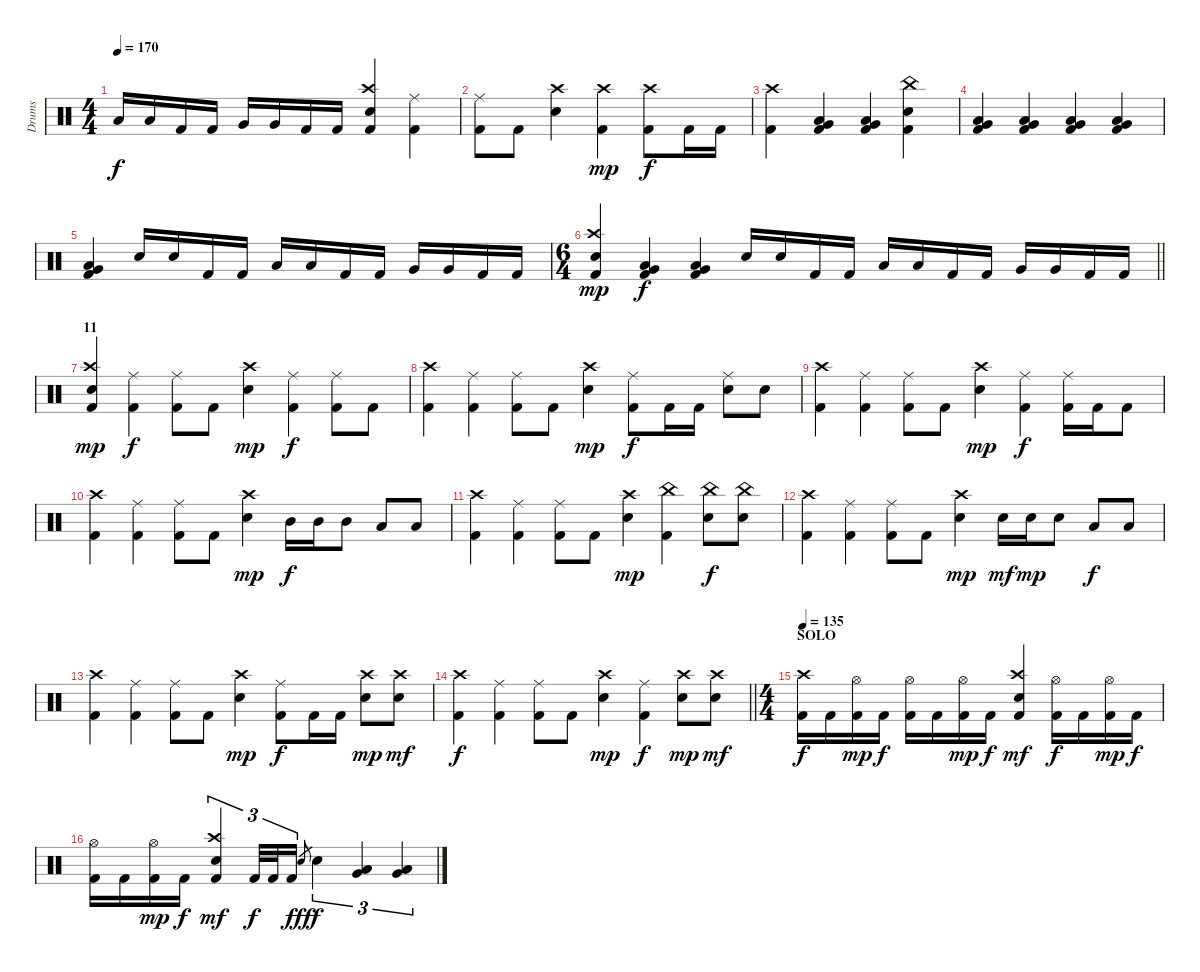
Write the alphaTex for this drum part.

\track ("Drums" "Drums") {instrument percussion}
\staff {score}
\articulation defaults
\ts (4 4)
\tempo 170
\clef neutral
\ks c "Low Tom (hit)".16{dy f} "Low Tom (hit)".16 "Kick (hit) 2".16 "Kick (hit) 2".16 "Very Low Tom (hit)".16 "Very Low Tom (hit)".16 "Kick (hit) 2".16 "Kick (hit) 2".16
("Crash high (hit)" "Electric Snare (hit)" "Kick (hit) 2").4 ("Ride (middle)" "Kick (hit) 2").4 |
("Ride (middle)" "Kick (hit) 2").8 "Kick (hit) 2".8 ("Crash high (hit)" "Electric Snare (hit)").4 ("Crash high (hit)" "Kick (hit) 2").4{dy mp} ("Crash high (hit)" "Kick (hit) 2").8{dy f} "Kick (hit) 2".16 "Kick (hit) 2".16 |
("Crash high (hit)" "Kick (hit) 2").4 ("Low Tom (hit)" "Very Low Tom (hit)" "Kick (hit) 2").4 ("Low Tom (hit)" "Very Low Tom (hit)" "Kick (hit) 2").4 ("China (hit)" "Electric Snare (hit)" "Kick (hit) 2").4 |
("Low Tom (hit)" "Very Low Tom (hit)" "Kick (hit) 2").4 ("Low Tom (hit)" "Very Low Tom (hit)" "Kick (hit) 2").4 ("Low Tom (hit)" "Very Low Tom (hit)" "Kick (hit) 2").4 ("Low Tom (hit)" "Very Low Tom (hit)" "Kick (hit) 2").4 |
("Low Tom (hit)" "Very Low Tom (hit)" "Kick (hit) 2").4 "Electric Snare (hit)".16 "Electric Snare (hit)".16 "Kick (hit) 2".16 "Kick (hit) 2".16 "Low Tom (hit)".16 "Low Tom (hit)".16 "Kick (hit) 2".16 "Kick (hit) 2".16 "Very Low Tom (hit)".16 "Very Low Tom (hit)".16 "Kick (hit) 2".16 "Kick (hit) 2".16 |
\ts (6 4)
\barLineRight lightlight
("Crash high (hit)" "Electric Snare (hit)" "Kick (hit) 2").4{dy mp} ("Low Tom (hit)" "Very Low Tom (hit)" "Kick (hit) 2").4{dy f} ("Low Tom (hit)" "Very Low Tom (hit)" "Kick (hit) 2").4 "Electric Snare (hit)".16 "Electric Snare (hit)".16 "Kick (hit) 2".16 "Kick (hit) 2".16 "Low Tom (hit)".16 "Low Tom (hit)".16 "Kick (hit) 2".16 "Kick (hit) 2".16 "Very Low Tom (hit)".16 "Very Low Tom (hit)".16 "Kick (hit) 2".16 "Kick (hit) 2".16 |
\section ("" "11")
("Crash high (hit)" "Electric Snare (hit)" "Kick (hit) 2").4{dy mp} ("Ride (middle)" "Kick (hit) 2").4{dy f} ("Ride (middle)" "Kick (hit) 2").8 "Kick (hit) 2".8 ("Crash high (hit)" "Electric Snare (hit)").4{dy mp} ("Ride (middle)" "Kick (hit) 2").4{dy f} ("Ride (middle)" "Kick (hit) 2").8 "Kick (hit) 2".8 |
("Crash high (hit)" "Kick (hit) 2").4 ("Ride (middle)" "Kick (hit) 2").4 ("Ride (middle)" "Kick (hit) 2").8 "Kick (hit) 2".8 ("Crash high (hit)" "Electric Snare (hit)").4{dy mp} ("Ride (middle)" "Kick (hit) 2").8{dy f} "Kick (hit) 2".16 "Kick (hit) 2".16 ("Ride (middle)" "Electric Snare (hit)").8 "Electric Snare (hit)".8 |
("Crash high (hit)" "Kick (hit) 2").4 ("Ride (middle)" "Kick (hit) 2").4 ("Ride (middle)" "Kick (hit) 2").8 "Kick (hit) 2".8 ("Crash high (hit)" "Electric Snare (hit)").4{dy mp} ("Ride (middle)" "Kick (hit) 2").4{dy f} ("Ride (middle)" "Kick (hit) 2").16 "Kick (hit) 2".16 "Kick (hit) 2".8 |
("Crash high (hit)" "Kick (hit) 2").4 ("Ride (middle)" "Kick (hit) 2").4 ("Ride (middle)" "Kick (hit) 2").8 "Kick (hit) 2".8 ("Crash high (hit)" "Electric Snare (hit)").4{dy mp} "Mid Tom (hit)".16{dy f} "Mid Tom (hit)".16 "Mid Tom (hit)".8 "Low Tom (hit)".8 "Low Tom (hit)".8 |
("Crash high (hit)" "Kick (hit) 2").4 ("Ride (middle)" "Kick (hit) 2").4 ("Ride (middle)" "Kick (hit) 2").8 "Kick (hit) 2".8 ("Crash high (hit)" "Electric Snare (hit)").4{dy mp} ("China (hit)" "Kick (hit) 2").4 ("China (hit)" "Electric Snare (hit)").8{dy f} ("China (hit)" "Electric Snare (hit)").8 |
("Crash high (hit)" "Kick (hit) 2").4 ("Ride (middle)" "Kick (hit) 2").4 ("Ride (middle)" "Kick (hit) 2").8 "Kick (hit) 2".8 ("Crash high (hit)" "Electric Snare (hit)").4{dy mp} "Electric Snare (hit)".16{dy mf} "Electric Snare (hit)".16{dy mp} "Electric Snare (hit)".8 "Low Tom (hit)".8{dy f} "Low Tom (hit)".8 |
("Crash high (hit)" "Kick (hit) 2").4 ("Ride (middle)" "Kick (hit) 2").4 ("Ride (middle)" "Kick (hit) 2").8 "Kick (hit) 2".8 ("Crash high (hit)" "Electric Snare (hit)").4{dy mp} ("Ride (middle)" "Kick (hit) 2").8{dy f} "Kick (hit) 2".16 "Kick (hit) 2".16 ("Crash high (hit)" "Electric Snare (hit)").8{dy mp} ("Crash high (hit)" "Electric Snare (hit)").8{dy mf} |
\barLineRight lightlight
("Crash high (hit)" "Kick (hit) 2").4{dy f} ("Ride (middle)" "Kick (hit) 2").4 ("Ride (middle)" "Kick (hit) 2").8 "Kick (hit) 2".8 ("Crash high (hit)" "Electric Snare (hit)").4{dy mp} ("Ride (middle)" "Kick (hit) 2").4{dy f} ("Crash high (hit)" "Electric Snare (hit)").8{dy mp} ("Crash high (hit)" "Electric Snare (hit)").8{dy mf} |
\ts (4 4)
\section ("" "SOLO")
\tempo 135
("Crash high (hit)" "Kick (hit) 2").16{dy f} "Kick (hit) 2".16 ("Hi-Hat (open)" "Kick (hit) 2").16{dy mp} "Kick (hit) 2".16{dy f} ("Hi-Hat (open)" "Kick (hit) 2").16 "Kick (hit) 2".16 ("Hi-Hat (open)" "Kick (hit) 2").16{dy mp} "Kick (hit) 2".16{dy f} ("Crash high (hit)" "Electric Snare (hit)" "Kick (hit) 2").4{dy mf} ("Hi-Hat (open)" "Kick (hit) 2").16{dy f} "Kick (hit) 2".16 ("Hi-Hat (open)" "Kick (hit) 2").16{dy mp} "Kick (hit) 2".16{dy f} |
("Hi-Hat (open)" "Kick (hit) 2").16 "Kick (hit) 2".16 ("Hi-Hat (open)" "Kick (hit) 2").16{dy mp} "Kick (hit) 2".16{dy f} ("Crash high (hit)" "Electric Snare (hit)" "Kick (hit) 2").4{tu (3 2) dy mf} "Kick (hit) 2".32{tu (3 2) dy f} "Kick (hit) 2".32{tu (3 2)} "Kick (hit) 2".16{tu (3 2)} "Electric Snare (hit)".8{gr dy fff} "Electric Snare (hit)".4{tu (3 2) dy f} ("Low Tom (hit)" "Very Low Tom (hit)").4{tu (3 2)} ("Very Low Tom (hit)" "Low Floor Tom (hit)").4{tu (3 2)}
